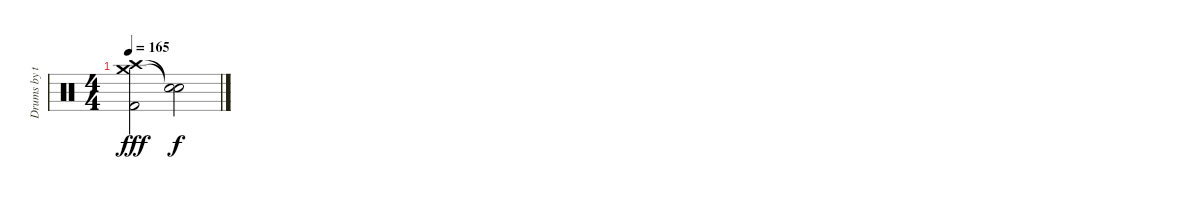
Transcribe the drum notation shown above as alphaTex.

\track ("Drums by terryn0" "Drums by t") {instrument percussion}
\staff {score}
\articulation defaults
\ts (4 4)
\tempo 165
\clef neutral
\ks c
("Crash high (hit)" "Crash medium (hit)" "Kick (hit) 2").2{dy fff} ("Snare (hit)"{t} "Snare (hit)"{t}).2{dy f volume 0}
